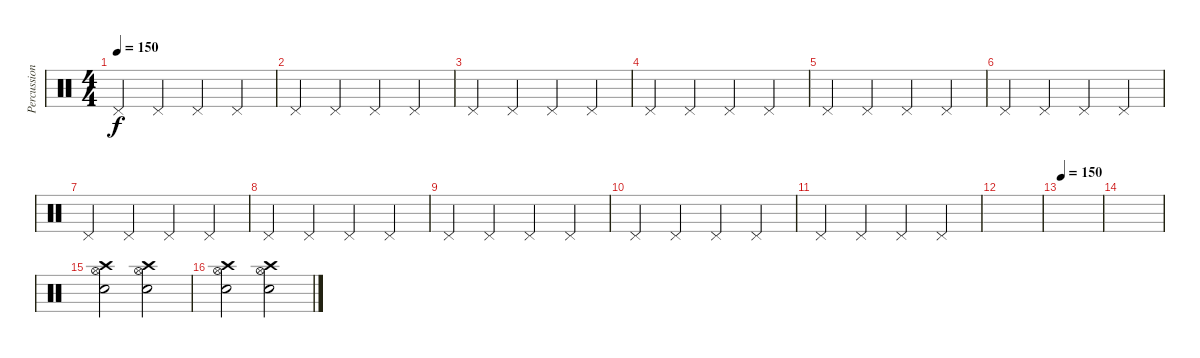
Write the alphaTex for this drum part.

\track ("Percussion" "Percussion") {instrument percussion}
\staff {score}
\articulation defaults
\ts (4 4)
\tempo 150
\clef neutral
\ks c "Pedal Hi-Hat (hit)".4{dy f} "Pedal Hi-Hat (hit)".4 "Pedal Hi-Hat (hit)".4 "Pedal Hi-Hat (hit)".4
|
"Pedal Hi-Hat (hit)".4 "Pedal Hi-Hat (hit)".4 "Pedal Hi-Hat (hit)".4 "Pedal Hi-Hat (hit)".4 |
"Pedal Hi-Hat (hit)".4 "Pedal Hi-Hat (hit)".4 "Pedal Hi-Hat (hit)".4 "Pedal Hi-Hat (hit)".4 |
"Pedal Hi-Hat (hit)".4 "Pedal Hi-Hat (hit)".4 "Pedal Hi-Hat (hit)".4 "Pedal Hi-Hat (hit)".4 |
"Pedal Hi-Hat (hit)".4 "Pedal Hi-Hat (hit)".4 "Pedal Hi-Hat (hit)".4 "Pedal Hi-Hat (hit)".4 |
"Pedal Hi-Hat (hit)".4 "Pedal Hi-Hat (hit)".4 "Pedal Hi-Hat (hit)".4 "Pedal Hi-Hat (hit)".4 |
"Pedal Hi-Hat (hit)".4 "Pedal Hi-Hat (hit)".4 "Pedal Hi-Hat (hit)".4 "Pedal Hi-Hat (hit)".4 |
"Pedal Hi-Hat (hit)".4 "Pedal Hi-Hat (hit)".4 "Pedal Hi-Hat (hit)".4 "Pedal Hi-Hat (hit)".4 |
"Pedal Hi-Hat (hit)".4 "Pedal Hi-Hat (hit)".4 "Pedal Hi-Hat (hit)".4 "Pedal Hi-Hat (hit)".4 |
"Pedal Hi-Hat (hit)".4 "Pedal Hi-Hat (hit)".4 "Pedal Hi-Hat (hit)".4 "Pedal Hi-Hat (hit)".4 |
"Pedal Hi-Hat (hit)".4 "Pedal Hi-Hat (hit)".4 "Pedal Hi-Hat (hit)".4 "Pedal Hi-Hat (hit)".4 |
|
\tempo 150
|
|
("Crash high (hit)" "Snare (hit) 2" "Hi-Hat (open)").2{volume 16} ("Crash high (hit)" "Snare (hit) 2" "Hi-Hat (open)").2 |
("Crash high (hit)" "Snare (hit) 2" "Hi-Hat (open)").2 ("Crash high (hit)" "Snare (hit) 2" "Hi-Hat (open)").2
